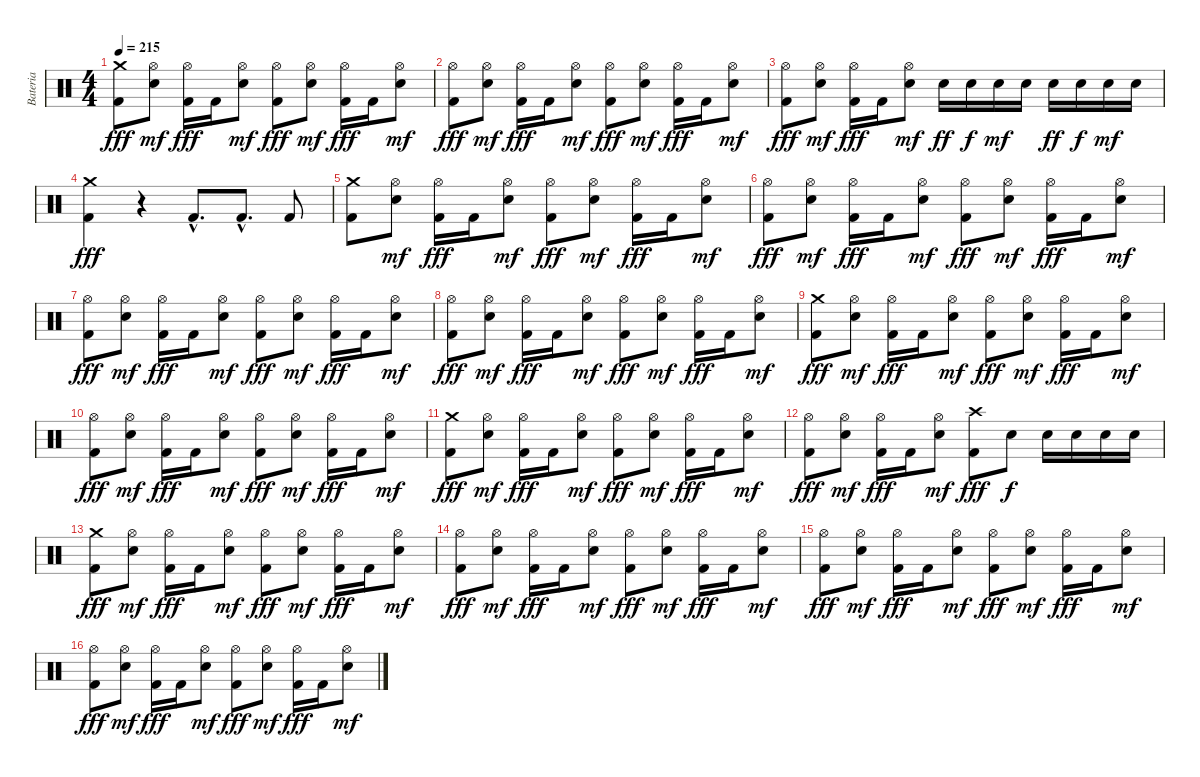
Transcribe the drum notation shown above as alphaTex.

\track ("Bateria" "Bateria") {instrument percussion}
\staff {score}
\articulation defaults
\ts (4 4)
\tempo 215
\clef neutral
\ks c
("Crash medium (hit)" "Kick (hit) 2").8{dy fff} ("Hi-Hat (open)" "Electric Snare (hit)").8{dy mf} ("Hi-Hat (open)" "Kick (hit) 2").16{dy fff} "Kick (hit) 2".16 ("Hi-Hat (open)" "Electric Snare (hit)").8{dy mf} ("Hi-Hat (open)" "Kick (hit) 2").8{dy fff} ("Hi-Hat (open)" "Electric Snare (hit)").8{dy mf} ("Hi-Hat (open)" "Kick (hit) 2").16{dy fff} "Kick (hit) 2".16 ("Hi-Hat (open)" "Electric Snare (hit)").8{dy mf} |
("Hi-Hat (open)" "Kick (hit) 2").8{dy fff} ("Hi-Hat (open)" "Electric Snare (hit)").8{dy mf} ("Hi-Hat (open)" "Kick (hit) 2").16{dy fff} "Kick (hit) 2".16 ("Hi-Hat (open)" "Electric Snare (hit)").8{dy mf} ("Hi-Hat (open)" "Kick (hit) 2").8{dy fff} ("Hi-Hat (open)" "Electric Snare (hit)").8{dy mf} ("Hi-Hat (open)" "Kick (hit) 2").16{dy fff} "Kick (hit) 2".16 ("Hi-Hat (open)" "Electric Snare (hit)").8{dy mf} |
("Hi-Hat (open)" "Kick (hit) 2").8{dy fff} ("Hi-Hat (open)" "Electric Snare (hit)").8{dy mf} ("Hi-Hat (open)" "Kick (hit) 2").16{dy fff} "Kick (hit) 2".16 ("Hi-Hat (open)" "Electric Snare (hit)").8{dy mf} "Electric Snare (hit)".16{dy ff} "Electric Snare (hit)".16{dy f} "Electric Snare (hit)".16{dy mf} "Electric Snare (hit)".16 "Electric Snare (hit)".16{dy ff} "Electric Snare (hit)".16{dy f} "Electric Snare (hit)".16{dy mf} "Electric Snare (hit)".16 |
("Crash medium (hit)" "Kick (hit) 2").4{dy fff} r.4 "Kick (hit) 2"{hac}.8{d} "Kick (hit) 2"{hac}.8{d} "Kick (hit) 2".8 |
("Crash medium (hit)" "Kick (hit) 2").8 ("Hi-Hat (open)" "Electric Snare (hit)").8{dy mf} ("Hi-Hat (open)" "Kick (hit) 2").16{dy fff} "Kick (hit) 2".16 ("Hi-Hat (open)" "Electric Snare (hit)").8{dy mf} ("Hi-Hat (open)" "Kick (hit) 2").8{dy fff} ("Hi-Hat (open)" "Electric Snare (hit)").8{dy mf} ("Hi-Hat (open)" "Kick (hit) 2").16{dy fff} "Kick (hit) 2".16 ("Hi-Hat (open)" "Electric Snare (hit)").8{dy mf} |
("Hi-Hat (open)" "Kick (hit) 2").8{dy fff} ("Hi-Hat (open)" "Electric Snare (hit)").8{dy mf} ("Hi-Hat (open)" "Kick (hit) 2").16{dy fff} "Kick (hit) 2".16 ("Hi-Hat (open)" "Electric Snare (hit)").8{dy mf} ("Hi-Hat (open)" "Kick (hit) 2").8{dy fff} ("Hi-Hat (open)" "Electric Snare (hit)").8{dy mf} ("Hi-Hat (open)" "Kick (hit) 2").16{dy fff} "Kick (hit) 2".16 ("Hi-Hat (open)" "Electric Snare (hit)").8{dy mf} |
("Hi-Hat (open)" "Kick (hit) 2").8{dy fff} ("Hi-Hat (open)" "Electric Snare (hit)").8{dy mf} ("Hi-Hat (open)" "Kick (hit) 2").16{dy fff} "Kick (hit) 2".16 ("Hi-Hat (open)" "Electric Snare (hit)").8{dy mf} ("Hi-Hat (open)" "Kick (hit) 2").8{dy fff} ("Hi-Hat (open)" "Electric Snare (hit)").8{dy mf} ("Hi-Hat (open)" "Kick (hit) 2").16{dy fff} "Kick (hit) 2".16 ("Hi-Hat (open)" "Electric Snare (hit)").8{dy mf} |
("Hi-Hat (open)" "Kick (hit) 2").8{dy fff} ("Hi-Hat (open)" "Electric Snare (hit)").8{dy mf} ("Hi-Hat (open)" "Kick (hit) 2").16{dy fff} "Kick (hit) 2".16 ("Hi-Hat (open)" "Electric Snare (hit)").8{dy mf} ("Hi-Hat (open)" "Kick (hit) 2").8{dy fff} ("Hi-Hat (open)" "Electric Snare (hit)").8{dy mf} ("Hi-Hat (open)" "Kick (hit) 2").16{dy fff} "Kick (hit) 2".16 ("Hi-Hat (open)" "Electric Snare (hit)").8{dy mf} |
("Crash medium (hit)" "Kick (hit) 2").8{dy fff} ("Hi-Hat (open)" "Electric Snare (hit)").8{dy mf} ("Hi-Hat (open)" "Kick (hit) 2").16{dy fff} "Kick (hit) 2".16 ("Hi-Hat (open)" "Electric Snare (hit)").8{dy mf} ("Hi-Hat (open)" "Kick (hit) 2").8{dy fff} ("Hi-Hat (open)" "Electric Snare (hit)").8{dy mf} ("Hi-Hat (open)" "Kick (hit) 2").16{dy fff} "Kick (hit) 2".16 ("Hi-Hat (open)" "Electric Snare (hit)").8{dy mf} |
("Hi-Hat (open)" "Kick (hit) 2").8{dy fff} ("Hi-Hat (open)" "Electric Snare (hit)").8{dy mf} ("Hi-Hat (open)" "Kick (hit) 2").16{dy fff} "Kick (hit) 2".16 ("Hi-Hat (open)" "Electric Snare (hit)").8{dy mf} ("Hi-Hat (open)" "Kick (hit) 2").8{dy fff} ("Hi-Hat (open)" "Electric Snare (hit)").8{dy mf} ("Hi-Hat (open)" "Kick (hit) 2").16{dy fff} "Kick (hit) 2".16 ("Hi-Hat (open)" "Electric Snare (hit)").8{dy mf} |
("Crash medium (hit)" "Kick (hit) 2").8{dy fff} ("Hi-Hat (open)" "Electric Snare (hit)").8{dy mf} ("Hi-Hat (open)" "Kick (hit) 2").16{dy fff} "Kick (hit) 2".16 ("Hi-Hat (open)" "Electric Snare (hit)").8{dy mf} ("Hi-Hat (open)" "Kick (hit) 2").8{dy fff} ("Hi-Hat (open)" "Electric Snare (hit)").8{dy mf} ("Hi-Hat (open)" "Kick (hit) 2").16{dy fff} "Kick (hit) 2".16 ("Hi-Hat (open)" "Electric Snare (hit)").8{dy mf} |
("Hi-Hat (open)" "Kick (hit) 2").8{dy fff} ("Hi-Hat (open)" "Electric Snare (hit)").8{dy mf} ("Hi-Hat (open)" "Kick (hit) 2").16{dy fff} "Kick (hit) 2".16 ("Hi-Hat (open)" "Electric Snare (hit)").8{dy mf} ("Crash high (hit)" "Kick (hit) 2").8{dy fff} "Electric Snare (hit)".8{dy f} "Electric Snare (hit)".16 "Electric Snare (hit)".16 "Electric Snare (hit)".16 "Electric Snare (hit)".16 |
("Crash medium (hit)" "Kick (hit) 2").8{dy fff} ("Hi-Hat (open)" "Electric Snare (hit)").8{dy mf} ("Hi-Hat (open)" "Kick (hit) 2").16{dy fff} "Kick (hit) 2".16 ("Hi-Hat (open)" "Electric Snare (hit)").8{dy mf} ("Hi-Hat (open)" "Kick (hit) 2").8{dy fff} ("Hi-Hat (open)" "Electric Snare (hit)").8{dy mf} ("Hi-Hat (open)" "Kick (hit) 2").16{dy fff} "Kick (hit) 2".16 ("Hi-Hat (open)" "Electric Snare (hit)").8{dy mf} |
("Hi-Hat (open)" "Kick (hit) 2").8{dy fff} ("Hi-Hat (open)" "Electric Snare (hit)").8{dy mf} ("Hi-Hat (open)" "Kick (hit) 2").16{dy fff} "Kick (hit) 2".16 ("Hi-Hat (open)" "Electric Snare (hit)").8{dy mf} ("Hi-Hat (open)" "Kick (hit) 2").8{dy fff} ("Hi-Hat (open)" "Electric Snare (hit)").8{dy mf} ("Hi-Hat (open)" "Kick (hit) 2").16{dy fff} "Kick (hit) 2".16 ("Hi-Hat (open)" "Electric Snare (hit)").8{dy mf} |
("Hi-Hat (open)" "Kick (hit) 2").8{dy fff} ("Hi-Hat (open)" "Electric Snare (hit)").8{dy mf} ("Hi-Hat (open)" "Kick (hit) 2").16{dy fff} "Kick (hit) 2".16 ("Hi-Hat (open)" "Electric Snare (hit)").8{dy mf} ("Hi-Hat (open)" "Kick (hit) 2").8{dy fff} ("Hi-Hat (open)" "Electric Snare (hit)").8{dy mf} ("Hi-Hat (open)" "Kick (hit) 2").16{dy fff} "Kick (hit) 2".16 ("Hi-Hat (open)" "Electric Snare (hit)").8{dy mf} |
("Hi-Hat (open)" "Kick (hit) 2").8{dy fff} ("Hi-Hat (open)" "Electric Snare (hit)").8{dy mf} ("Hi-Hat (open)" "Kick (hit) 2").16{dy fff} "Kick (hit) 2".16 ("Hi-Hat (open)" "Electric Snare (hit)").8{dy mf} ("Hi-Hat (open)" "Kick (hit) 2").8{dy fff} ("Hi-Hat (open)" "Electric Snare (hit)").8{dy mf} ("Hi-Hat (open)" "Kick (hit) 2").16{dy fff} "Kick (hit) 2".16 ("Hi-Hat (open)" "Electric Snare (hit)").8{dy mf}
